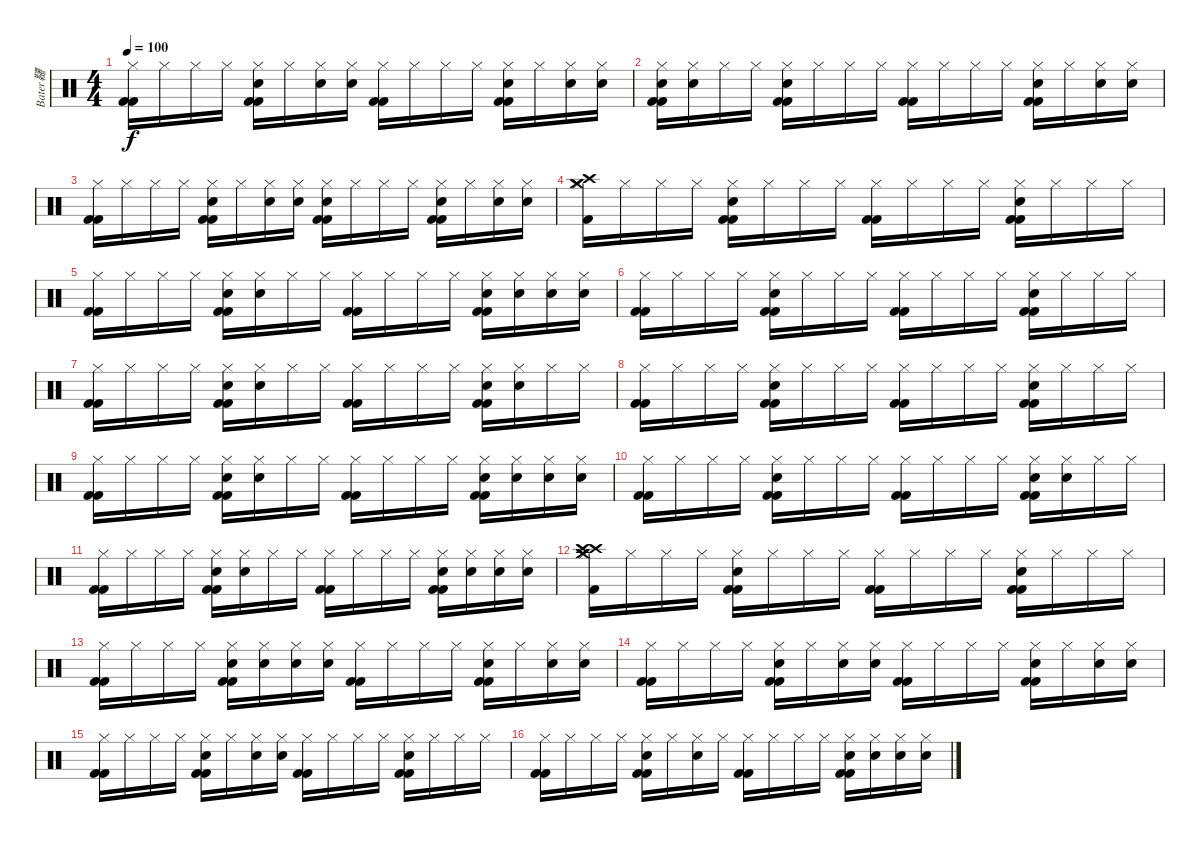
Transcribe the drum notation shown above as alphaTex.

\track ("Bater韆" "Bater韆") {instrument percussion}
\staff {score}
\articulation defaults
\ts (4 4)
\tempo 100
\clef neutral
\ks c
("Kick (hit) 2" "Kick (hit) 2" "Hi-Hat (closed)").16{dy f} "Hi-Hat (closed)".16 "Hi-Hat (closed)".16 "Hi-Hat (closed)".16 ("Kick (hit) 2" "Kick (hit) 2" "Electric Snare (hit)" "Hi-Hat (closed)").16 "Hi-Hat (closed)".16 ("Electric Snare (hit)" "Hi-Hat (closed)").16 ("Electric Snare (hit)" "Hi-Hat (closed)").16 ("Kick (hit) 2" "Kick (hit) 2" "Hi-Hat (closed)").16 "Hi-Hat (closed)".16 "Hi-Hat (closed)".16 "Hi-Hat (closed)".16 ("Kick (hit) 2" "Kick (hit) 2" "Electric Snare (hit)" "Hi-Hat (closed)").16 "Hi-Hat (closed)".16 ("Electric Snare (hit)" "Hi-Hat (closed)").16 ("Electric Snare (hit)" "Hi-Hat (closed)").16 |
("Kick (hit) 2" "Kick (hit) 2" "Electric Snare (hit)" "Hi-Hat (closed)").16 ("Electric Snare (hit)" "Hi-Hat (closed)").16 "Hi-Hat (closed)".16 "Hi-Hat (closed)".16 ("Kick (hit) 2" "Kick (hit) 2" "Electric Snare (hit)" "Hi-Hat (closed)").16 "Hi-Hat (closed)".16 "Hi-Hat (closed)".16 "Hi-Hat (closed)".16 ("Kick (hit) 2" "Kick (hit) 2" "Hi-Hat (closed)").16 "Hi-Hat (closed)".16 "Hi-Hat (closed)".16 "Hi-Hat (closed)".16 ("Kick (hit) 2" "Kick (hit) 2" "Electric Snare (hit)" "Hi-Hat (closed)").16 "Hi-Hat (closed)".16 ("Electric Snare (hit)" "Hi-Hat (closed)").16 ("Electric Snare (hit)" "Hi-Hat (closed)").16 |
("Kick (hit) 2" "Kick (hit) 2" "Hi-Hat (closed)").16 "Hi-Hat (closed)".16 "Hi-Hat (closed)".16 "Hi-Hat (closed)".16 ("Kick (hit) 2" "Kick (hit) 2" "Electric Snare (hit)" "Hi-Hat (closed)").16 "Hi-Hat (closed)".16 ("Electric Snare (hit)" "Hi-Hat (closed)").16 ("Electric Snare (hit)" "Hi-Hat (closed)").16 ("Kick (hit) 2" "Kick (hit) 2" "Electric Snare (hit)" "Hi-Hat (closed)").16 "Hi-Hat (closed)".16 "Hi-Hat (closed)".16 "Hi-Hat (closed)".16 ("Kick (hit) 2" "Kick (hit) 2" "Electric Snare (hit)" "Hi-Hat (closed)").16 "Hi-Hat (closed)".16 ("Electric Snare (hit)" "Hi-Hat (closed)").16 ("Electric Snare (hit)" "Hi-Hat (closed)").16 |
("Crash high (hit)" "Crash medium (hit)" "Kick (hit) 2" "Hi-Hat (closed)").16 "Hi-Hat (closed)".16 "Hi-Hat (closed)".16 "Hi-Hat (closed)".16 ("Kick (hit) 2" "Kick (hit) 2" "Electric Snare (hit)" "Hi-Hat (closed)").16 "Hi-Hat (closed)".16 "Hi-Hat (closed)".16 "Hi-Hat (closed)".16 ("Kick (hit) 2" "Kick (hit) 2" "Hi-Hat (closed)").16 "Hi-Hat (closed)".16 "Hi-Hat (closed)".16 "Hi-Hat (closed)".16 ("Kick (hit) 2" "Kick (hit) 2" "Electric Snare (hit)" "Hi-Hat (closed)").16 "Hi-Hat (closed)".16 "Hi-Hat (closed)".16 "Hi-Hat (closed)".16 |
("Kick (hit) 2" "Kick (hit) 2" "Hi-Hat (closed)").16 "Hi-Hat (closed)".16 "Hi-Hat (closed)".16 "Hi-Hat (closed)".16 ("Kick (hit) 2" "Kick (hit) 2" "Electric Snare (hit)" "Hi-Hat (closed)").16 ("Electric Snare (hit)" "Hi-Hat (closed)").16 "Hi-Hat (closed)".16 "Hi-Hat (closed)".16 ("Kick (hit) 2" "Kick (hit) 2" "Hi-Hat (closed)").16 "Hi-Hat (closed)".16 "Hi-Hat (closed)".16 "Hi-Hat (closed)".16 ("Kick (hit) 2" "Kick (hit) 2" "Electric Snare (hit)" "Hi-Hat (closed)").16 ("Electric Snare (hit)" "Hi-Hat (closed)").16 ("Electric Snare (hit)" "Hi-Hat (closed)").16 ("Electric Snare (hit)" "Hi-Hat (closed)").16 |
("Kick (hit) 2" "Kick (hit) 2" "Hi-Hat (closed)").16 "Hi-Hat (closed)".16 "Hi-Hat (closed)".16 "Hi-Hat (closed)".16 ("Kick (hit) 2" "Kick (hit) 2" "Electric Snare (hit)" "Hi-Hat (closed)").16 "Hi-Hat (closed)".16 "Hi-Hat (closed)".16 "Hi-Hat (closed)".16 ("Kick (hit) 2" "Kick (hit) 2" "Hi-Hat (closed)").16 "Hi-Hat (closed)".16 "Hi-Hat (closed)".16 "Hi-Hat (closed)".16 ("Kick (hit) 2" "Kick (hit) 2" "Electric Snare (hit)" "Hi-Hat (closed)").16 "Hi-Hat (closed)".16 "Hi-Hat (closed)".16 "Hi-Hat (closed)".16 |
("Kick (hit) 2" "Kick (hit) 2" "Hi-Hat (closed)").16 "Hi-Hat (closed)".16 "Hi-Hat (closed)".16 "Hi-Hat (closed)".16 ("Kick (hit) 2" "Kick (hit) 2" "Electric Snare (hit)" "Hi-Hat (closed)").16 ("Electric Snare (hit)" "Hi-Hat (closed)").16 "Hi-Hat (closed)".16 "Hi-Hat (closed)".16 ("Kick (hit) 2" "Kick (hit) 2" "Hi-Hat (closed)").16 "Hi-Hat (closed)".16 "Hi-Hat (closed)".16 "Hi-Hat (closed)".16 ("Kick (hit) 2" "Kick (hit) 2" "Electric Snare (hit)" "Hi-Hat (closed)").16 ("Electric Snare (hit)" "Hi-Hat (closed)").16 "Hi-Hat (closed)".16 "Hi-Hat (closed)".16 |
("Kick (hit) 2" "Kick (hit) 2" "Hi-Hat (closed)").16 "Hi-Hat (closed)".16 "Hi-Hat (closed)".16 "Hi-Hat (closed)".16 ("Kick (hit) 2" "Kick (hit) 2" "Electric Snare (hit)" "Hi-Hat (closed)").16 "Hi-Hat (closed)".16 "Hi-Hat (closed)".16 "Hi-Hat (closed)".16 ("Kick (hit) 2" "Kick (hit) 2" "Hi-Hat (closed)").16 "Hi-Hat (closed)".16 "Hi-Hat (closed)".16 "Hi-Hat (closed)".16 ("Kick (hit) 2" "Kick (hit) 2" "Electric Snare (hit)" "Hi-Hat (closed)").16 "Hi-Hat (closed)".16 "Hi-Hat (closed)".16 "Hi-Hat (closed)".16 |
("Kick (hit) 2" "Kick (hit) 2" "Hi-Hat (closed)").16 "Hi-Hat (closed)".16 "Hi-Hat (closed)".16 "Hi-Hat (closed)".16 ("Kick (hit) 2" "Kick (hit) 2" "Electric Snare (hit)" "Hi-Hat (closed)").16 ("Electric Snare (hit)" "Hi-Hat (closed)").16 "Hi-Hat (closed)".16 "Hi-Hat (closed)".16 ("Kick (hit) 2" "Kick (hit) 2" "Hi-Hat (closed)").16 "Hi-Hat (closed)".16 "Hi-Hat (closed)".16 "Hi-Hat (closed)".16 ("Kick (hit) 2" "Kick (hit) 2" "Electric Snare (hit)" "Hi-Hat (closed)").16 ("Electric Snare (hit)" "Hi-Hat (closed)").16 ("Electric Snare (hit)" "Hi-Hat (closed)").16 ("Electric Snare (hit)" "Hi-Hat (closed)").16 |
("Kick (hit) 2" "Kick (hit) 2" "Hi-Hat (closed)").16 "Hi-Hat (closed)".16 "Hi-Hat (closed)".16 "Hi-Hat (closed)".16 ("Kick (hit) 2" "Kick (hit) 2" "Electric Snare (hit)" "Hi-Hat (closed)").16 "Hi-Hat (closed)".16 "Hi-Hat (closed)".16 "Hi-Hat (closed)".16 ("Kick (hit) 2" "Kick (hit) 2" "Hi-Hat (closed)").16 "Hi-Hat (closed)".16 "Hi-Hat (closed)".16 "Hi-Hat (closed)".16 ("Kick (hit) 2" "Kick (hit) 2" "Electric Snare (hit)" "Hi-Hat (closed)").16 ("Electric Snare (hit)" "Hi-Hat (closed)").16 "Hi-Hat (closed)".16 "Hi-Hat (closed)".16 |
("Kick (hit) 2" "Kick (hit) 2" "Hi-Hat (closed)").16 "Hi-Hat (closed)".16 "Hi-Hat (closed)".16 "Hi-Hat (closed)".16 ("Kick (hit) 2" "Kick (hit) 2" "Electric Snare (hit)" "Hi-Hat (closed)").16 ("Electric Snare (hit)" "Hi-Hat (closed)").16 "Hi-Hat (closed)".16 "Hi-Hat (closed)".16 ("Kick (hit) 2" "Kick (hit) 2" "Hi-Hat (closed)").16 "Hi-Hat (closed)".16 "Hi-Hat (closed)".16 "Hi-Hat (closed)".16 ("Kick (hit) 2" "Kick (hit) 2" "Electric Snare (hit)" "Hi-Hat (closed)").16 ("Electric Snare (hit)" "Hi-Hat (closed)").16 ("Electric Snare (hit)" "Hi-Hat (closed)").16 ("Electric Snare (hit)" "Hi-Hat (closed)").16 |
("Crash high (hit)" "Crash high (hit)" "Crash medium (hit)" "Kick (hit) 2" "Hi-Hat (closed)").16 "Hi-Hat (closed)".16 "Hi-Hat (closed)".16 "Hi-Hat (closed)".16 ("Kick (hit) 2" "Kick (hit) 2" "Electric Snare (hit)" "Hi-Hat (closed)").16 "Hi-Hat (closed)".16 "Hi-Hat (closed)".16 "Hi-Hat (closed)".16 ("Kick (hit) 2" "Kick (hit) 2" "Hi-Hat (closed)").16 "Hi-Hat (closed)".16 "Hi-Hat (closed)".16 "Hi-Hat (closed)".16 ("Kick (hit) 2" "Kick (hit) 2" "Electric Snare (hit)" "Hi-Hat (closed)").16 "Hi-Hat (closed)".16 "Hi-Hat (closed)".16 "Hi-Hat (closed)".16 |
("Kick (hit) 2" "Kick (hit) 2" "Hi-Hat (closed)").16 "Hi-Hat (closed)".16 "Hi-Hat (closed)".16 "Hi-Hat (closed)".16 ("Kick (hit) 2" "Kick (hit) 2" "Electric Snare (hit)" "Hi-Hat (closed)").16 ("Electric Snare (hit)" "Hi-Hat (closed)").16 ("Electric Snare (hit)" "Hi-Hat (closed)").16 ("Electric Snare (hit)" "Hi-Hat (closed)").16 ("Kick (hit) 2" "Kick (hit) 2" "Hi-Hat (closed)").16 "Hi-Hat (closed)".16 "Hi-Hat (closed)".16 "Hi-Hat (closed)".16 ("Kick (hit) 2" "Kick (hit) 2" "Electric Snare (hit)" "Hi-Hat (closed)").16 "Hi-Hat (closed)".16 ("Electric Snare (hit)" "Hi-Hat (closed)").16 ("Electric Snare (hit)" "Hi-Hat (closed)").16 |
("Kick (hit) 2" "Kick (hit) 2" "Hi-Hat (closed)").16 "Hi-Hat (closed)".16 "Hi-Hat (closed)".16 "Hi-Hat (closed)".16 ("Kick (hit) 2" "Kick (hit) 2" "Electric Snare (hit)" "Hi-Hat (closed)").16 "Hi-Hat (closed)".16 ("Electric Snare (hit)" "Hi-Hat (closed)").16 ("Electric Snare (hit)" "Hi-Hat (closed)").16 ("Kick (hit) 2" "Kick (hit) 2" "Hi-Hat (closed)").16 "Hi-Hat (closed)".16 "Hi-Hat (closed)".16 "Hi-Hat (closed)".16 ("Kick (hit) 2" "Kick (hit) 2" "Electric Snare (hit)" "Hi-Hat (closed)").16 "Hi-Hat (closed)".16 ("Electric Snare (hit)" "Hi-Hat (closed)").16 ("Electric Snare (hit)" "Hi-Hat (closed)").16 |
("Kick (hit) 2" "Kick (hit) 2" "Hi-Hat (closed)").16 "Hi-Hat (closed)".16 "Hi-Hat (closed)".16 "Hi-Hat (closed)".16 ("Kick (hit) 2" "Kick (hit) 2" "Electric Snare (hit)" "Hi-Hat (closed)").16 "Hi-Hat (closed)".16 ("Electric Snare (hit)" "Hi-Hat (closed)").16 ("Electric Snare (hit)" "Hi-Hat (closed)").16 ("Kick (hit) 2" "Kick (hit) 2" "Hi-Hat (closed)").16 "Hi-Hat (closed)".16 "Hi-Hat (closed)".16 "Hi-Hat (closed)".16 ("Kick (hit) 2" "Kick (hit) 2" "Electric Snare (hit)" "Hi-Hat (closed)").16 "Hi-Hat (closed)".16 "Hi-Hat (closed)".16 "Hi-Hat (closed)".16 |
("Kick (hit) 2" "Kick (hit) 2" "Hi-Hat (closed)").16 "Hi-Hat (closed)".16 "Hi-Hat (closed)".16 "Hi-Hat (closed)".16 ("Kick (hit) 2" "Kick (hit) 2" "Electric Snare (hit)" "Hi-Hat (closed)").16 "Hi-Hat (closed)".16 ("Electric Snare (hit)" "Hi-Hat (closed)").16 "Hi-Hat (closed)".16 ("Kick (hit) 2" "Kick (hit) 2" "Hi-Hat (closed)").16 "Hi-Hat (closed)".16 "Hi-Hat (closed)".16 "Hi-Hat (closed)".16 ("Kick (hit) 2" "Kick (hit) 2" "Electric Snare (hit)" "Hi-Hat (closed)").16 ("Electric Snare (hit)" "Hi-Hat (closed)").16 ("Electric Snare (hit)" "Hi-Hat (closed)").16 ("Electric Snare (hit)" "Hi-Hat (closed)").16
